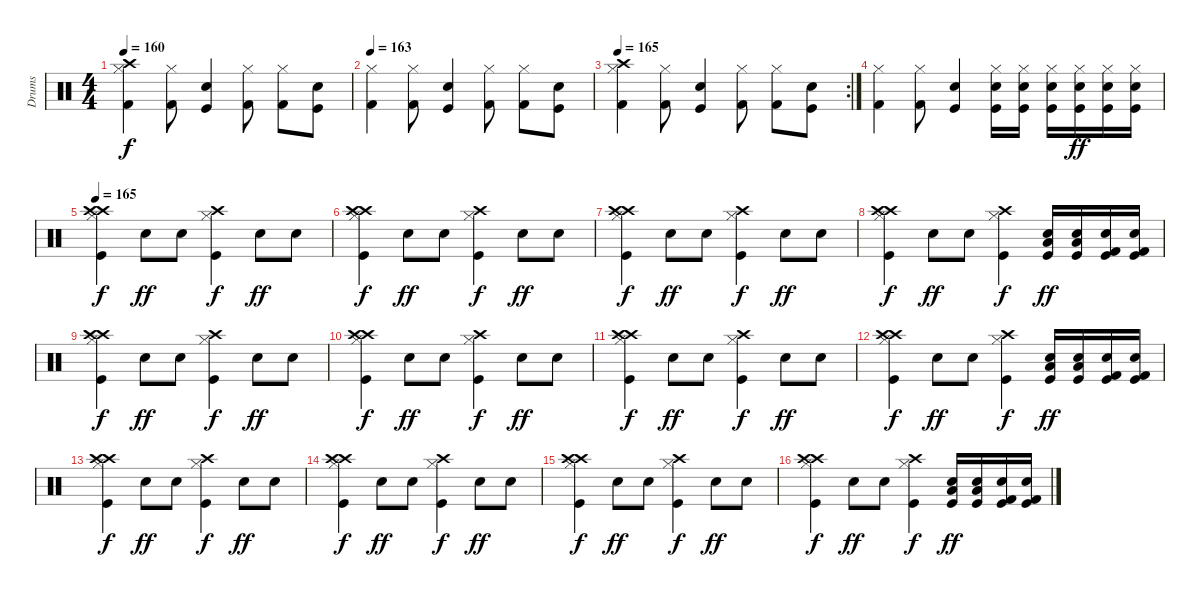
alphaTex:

\track ("Drums" "Drums") {instrument percussion}
\staff {score}
\articulation defaults
\ts (4 4)
\tempo 160
\clef neutral
\ks c
("Kick (hit) 2" "Hi-Hat (closed)" "Crash high (hit)").4{dy f} ("Kick (hit) 2" "Hi-Hat (closed)").8 ("Snare (hit) 2" "Kick (hit)").4 ("Kick (hit) 2" "Hi-Hat (closed)").8 ("Kick (hit) 2" "Hi-Hat (closed)").8 ("Snare (hit) 2" "Kick (hit)").8 |
\tempo 163
("Kick (hit) 2" "Hi-Hat (closed)").4 ("Kick (hit) 2" "Hi-Hat (closed)").8 ("Snare (hit) 2" "Kick (hit)").4 ("Kick (hit) 2" "Hi-Hat (closed)").8 ("Kick (hit) 2" "Hi-Hat (closed)").8 ("Snare (hit) 2" "Kick (hit)").8 |
\rc 2
\tempo 165
("Kick (hit) 2" "Hi-Hat (closed)" "Crash high (hit)").4 ("Kick (hit) 2" "Hi-Hat (closed)").8 ("Snare (hit) 2" "Kick (hit)").4 ("Kick (hit) 2" "Hi-Hat (closed)").8 ("Kick (hit) 2" "Hi-Hat (closed)").8 ("Snare (hit) 2" "Kick (hit)").8 |
("Kick (hit) 2" "Hi-Hat (closed)").4 ("Kick (hit) 2" "Hi-Hat (closed)").8 ("Snare (hit) 2" "Kick (hit)").4 ("Snare (hit) 2" "Hi-Hat (closed)" "Kick (hit)").16 ("Snare (hit) 2" "Hi-Hat (closed)" "Kick (hit)").16 ("Snare (hit) 2" "Hi-Hat (closed)" "Kick (hit)").16 ("Snare (hit) 2" "Hi-Hat (closed)" "Kick (hit)").16{dy ff} ("Snare (hit) 2" "Hi-Hat (closed)" "Kick (hit)").16 ("Snare (hit) 2" "Hi-Hat (closed)" "Kick (hit)").16 |
\tempo 165
("Crash high (hit)" "Kick (hit)" "Hi-Hat (closed)" "Crash high (hit)").4{dy f} "Snare (hit) 2".8{dy ff} "Snare (hit) 2".8 ("Crash high (hit)" "Kick (hit)" "Hi-Hat (closed)").4{dy f} "Snare (hit) 2".8{dy ff} "Snare (hit) 2".8 |
("Crash high (hit)" "Kick (hit)" "Hi-Hat (closed)" "Crash high (hit)").4{dy f} "Snare (hit) 2".8{dy ff} "Snare (hit) 2".8 ("Crash high (hit)" "Kick (hit)" "Hi-Hat (closed)").4{dy f} "Snare (hit) 2".8{dy ff} "Snare (hit) 2".8 |
("Crash high (hit)" "Kick (hit)" "Hi-Hat (closed)" "Crash high (hit)").4{dy f} "Snare (hit) 2".8{dy ff} "Snare (hit) 2".8 ("Crash high (hit)" "Kick (hit)" "Hi-Hat (closed)").4{dy f} "Snare (hit) 2".8{dy ff} "Snare (hit) 2".8 |
("Crash high (hit)" "Kick (hit)" "Hi-Hat (closed)" "Crash high (hit)").4{dy f} "Snare (hit) 2".8{dy ff} "Snare (hit) 2".8 ("Crash high (hit)" "Kick (hit)" "Hi-Hat (closed)").4{dy f} ("Snare (hit) 2" "Low Floor Tom (hit)" "Kick (hit)").16{dy ff} ("Snare (hit) 2" "Low Floor Tom (hit)" "Kick (hit)").16 ("Snare (hit) 2" "Kick (hit) 2" "Kick (hit)").16 ("Snare (hit) 2" "Kick (hit) 2" "Kick (hit)").16 |
("Crash high (hit)" "Kick (hit)" "Hi-Hat (closed)" "Crash high (hit)").4{dy f} "Snare (hit) 2".8{dy ff} "Snare (hit) 2".8 ("Crash high (hit)" "Kick (hit)" "Hi-Hat (closed)").4{dy f} "Snare (hit) 2".8{dy ff} "Snare (hit) 2".8 |
("Crash high (hit)" "Kick (hit)" "Hi-Hat (closed)" "Crash high (hit)").4{dy f} "Snare (hit) 2".8{dy ff} "Snare (hit) 2".8 ("Crash high (hit)" "Kick (hit)" "Hi-Hat (closed)").4{dy f} "Snare (hit) 2".8{dy ff} "Snare (hit) 2".8 |
("Crash high (hit)" "Kick (hit)" "Hi-Hat (closed)" "Crash high (hit)").4{dy f} "Snare (hit) 2".8{dy ff} "Snare (hit) 2".8 ("Crash high (hit)" "Kick (hit)" "Hi-Hat (closed)").4{dy f} "Snare (hit) 2".8{dy ff} "Snare (hit) 2".8 |
("Crash high (hit)" "Kick (hit)" "Hi-Hat (closed)" "Crash high (hit)").4{dy f} "Snare (hit) 2".8{dy ff} "Snare (hit) 2".8 ("Crash high (hit)" "Kick (hit)" "Hi-Hat (closed)").4{dy f} ("Snare (hit) 2" "Low Floor Tom (hit)" "Kick (hit)").16{dy ff} ("Snare (hit) 2" "Low Floor Tom (hit)" "Kick (hit)").16 ("Snare (hit) 2" "Kick (hit) 2" "Kick (hit)").16 ("Snare (hit) 2" "Kick (hit) 2" "Kick (hit)").16 |
("Crash high (hit)" "Kick (hit)" "Hi-Hat (closed)" "Crash high (hit)").4{dy f} "Snare (hit) 2".8{dy ff} "Snare (hit) 2".8 ("Crash high (hit)" "Kick (hit)" "Hi-Hat (closed)").4{dy f} "Snare (hit) 2".8{dy ff} "Snare (hit) 2".8 |
("Crash high (hit)" "Kick (hit)" "Hi-Hat (closed)" "Crash high (hit)").4{dy f} "Snare (hit) 2".8{dy ff} "Snare (hit) 2".8 ("Crash high (hit)" "Kick (hit)" "Hi-Hat (closed)").4{dy f} "Snare (hit) 2".8{dy ff} "Snare (hit) 2".8 |
("Crash high (hit)" "Kick (hit)" "Hi-Hat (closed)" "Crash high (hit)").4{dy f} "Snare (hit) 2".8{dy ff} "Snare (hit) 2".8 ("Crash high (hit)" "Kick (hit)" "Hi-Hat (closed)").4{dy f} "Snare (hit) 2".8{dy ff} "Snare (hit) 2".8 |
("Crash high (hit)" "Kick (hit)" "Hi-Hat (closed)" "Crash high (hit)").4{dy f} "Snare (hit) 2".8{dy ff} "Snare (hit) 2".8 ("Crash high (hit)" "Kick (hit)" "Hi-Hat (closed)").4{dy f} ("Snare (hit) 2" "Low Floor Tom (hit)" "Kick (hit)").16{dy ff} ("Snare (hit) 2" "Low Floor Tom (hit)" "Kick (hit)").16 ("Snare (hit) 2" "Kick (hit) 2" "Kick (hit)").16 ("Snare (hit) 2" "Kick (hit) 2" "Kick (hit)").16
